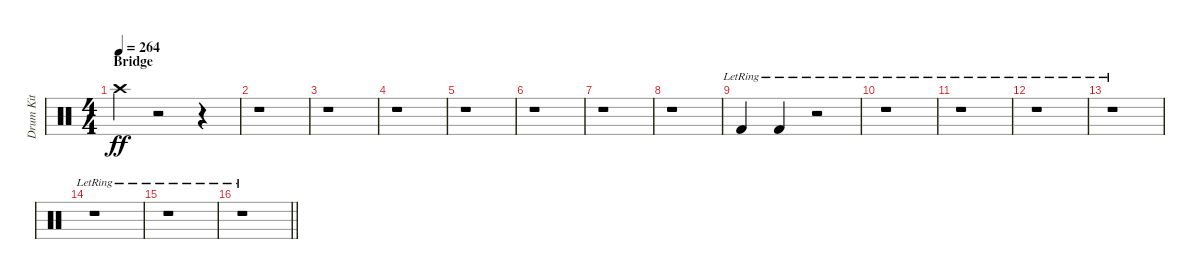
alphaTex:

\track ("Drum Kit" "Drum Kit") {instrument percussion}
\staff {score}
\articulation defaults
\ts (4 4)
\section ("" "Bridge")
\tempo 264
\clef neutral
\ks c "Crash high (hit)".4{dy ff}
r.2 r.4 |
r.1 |
r.1 |
r.1 |
r.1 |
r.1 |
r.1 |
r.1 |
"Kick (hit) 2"{lr}.4 "Kick (hit) 2"{lr}.4 r.2 |
r.1 |
r.1 |
r.1 |
r.1 |
r.1 |
r.1 |
\barLineRight lightlight
r.1
